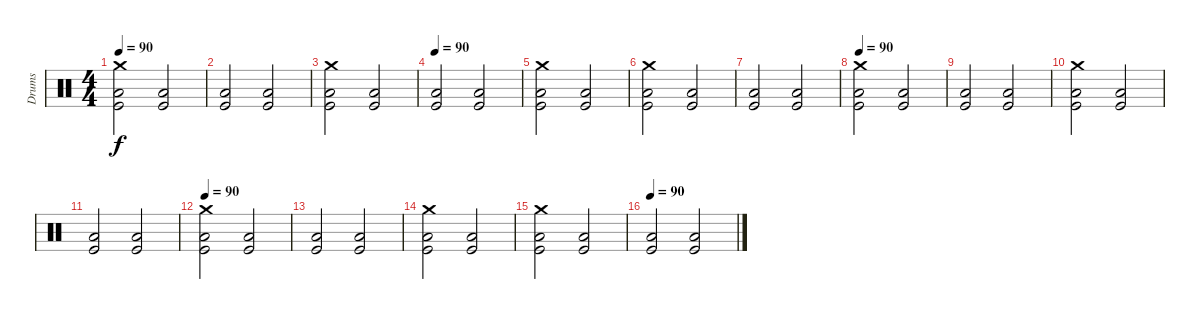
\track ("Drums" "Drums") {instrument percussion}
\staff {score}
\articulation defaults
\ts (4 4)
\tempo 90
\clef neutral
\ks c
("Crash medium (hit)" "Low Floor Tom (hit)" "Kick (hit)").2{dy f} ("Low Floor Tom (hit)" "Kick (hit)").2 |
("Low Floor Tom (hit)" "Kick (hit)").2 ("Low Floor Tom (hit)" "Kick (hit)").2 |
("Crash medium (hit)" "Low Floor Tom (hit)" "Kick (hit)").2 ("Low Floor Tom (hit)" "Kick (hit)").2 |
\tempo 90
("Low Floor Tom (hit)" "Kick (hit)").2 ("Low Floor Tom (hit)" "Kick (hit)").2 |
("Crash medium (hit)" "Low Floor Tom (hit)" "Kick (hit)").2 ("Low Floor Tom (hit)" "Kick (hit)").2 |
("Crash medium (hit)" "Low Floor Tom (hit)" "Kick (hit)").2 ("Low Floor Tom (hit)" "Kick (hit)").2 |
("Low Floor Tom (hit)" "Kick (hit)").2 ("Low Floor Tom (hit)" "Kick (hit)").2 |
\tempo 90
("Crash medium (hit)" "Low Floor Tom (hit)" "Kick (hit)").2 ("Low Floor Tom (hit)" "Kick (hit)").2 |
("Low Floor Tom (hit)" "Kick (hit)").2 ("Low Floor Tom (hit)" "Kick (hit)").2 |
("Crash medium (hit)" "Low Floor Tom (hit)" "Kick (hit)").2 ("Low Floor Tom (hit)" "Kick (hit)").2 |
("Low Floor Tom (hit)" "Kick (hit)").2 ("Low Floor Tom (hit)" "Kick (hit)").2 |
\tempo 90
("Crash medium (hit)" "Low Floor Tom (hit)" "Kick (hit)").2 ("Low Floor Tom (hit)" "Kick (hit)").2 |
("Low Floor Tom (hit)" "Kick (hit)").2 ("Low Floor Tom (hit)" "Kick (hit)").2 |
("Crash medium (hit)" "Low Floor Tom (hit)" "Kick (hit)").2 ("Low Floor Tom (hit)" "Kick (hit)").2 |
("Crash medium (hit)" "Low Floor Tom (hit)" "Kick (hit)").2 ("Low Floor Tom (hit)" "Kick (hit)").2 |
\tempo 90
("Low Floor Tom (hit)" "Kick (hit)").2 ("Low Floor Tom (hit)" "Kick (hit)").2
